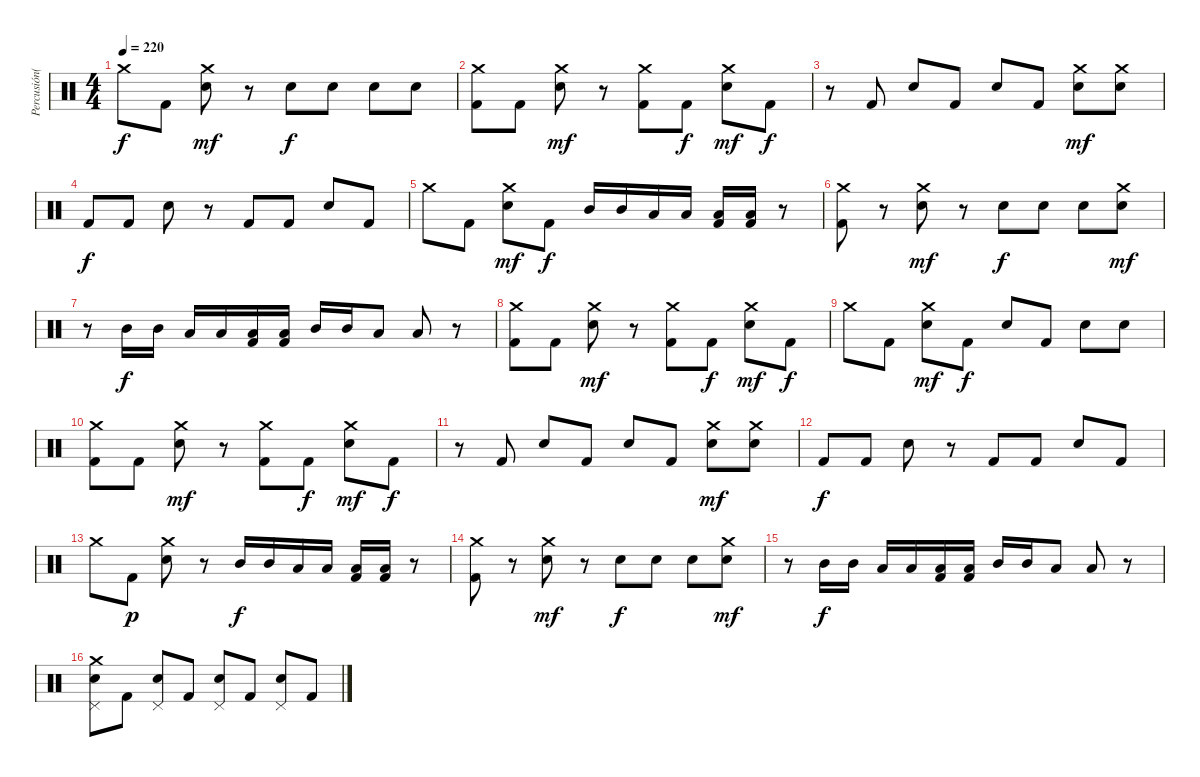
\track ("Percusión(Brett Powell)" "Percusión(") {instrument percussion}
\staff {score}
\articulation defaults
\ts (4 4)
\tempo 220
\clef neutral
\ks c "Crash medium (hit)".8{dy f} "Kick (hit) 2".8
("Crash medium (hit)" "Electric Snare (hit)").8{dy mf} r.8 "Electric Snare (hit)".8{dy f} "Electric Snare (hit)".8 "Electric Snare (hit)".8 "Electric Snare (hit)".8 |
("Crash medium (hit)" "Kick (hit) 2").8 "Kick (hit) 2".8 ("Crash medium (hit)" "Electric Snare (hit)").8{dy mf} r.8 ("Crash medium (hit)" "Kick (hit) 2").8 "Kick (hit) 2".8{dy f} ("Crash medium (hit)" "Electric Snare (hit)").8{dy mf} "Kick (hit) 2".8{dy f} |
r.8 "Kick (hit) 2".8 "Electric Snare (hit)".8 "Kick (hit) 2".8 "Electric Snare (hit)".8 "Kick (hit) 2".8 ("Crash medium (hit)" "Electric Snare (hit)").8{dy mf} ("Crash medium (hit)" "Electric Snare (hit)").8 |
"Kick (hit) 2".8{dy f} "Kick (hit) 2".8 "Electric Snare (hit)".8 r.8 "Kick (hit) 2".8 "Kick (hit) 2".8 "Electric Snare (hit)".8 "Kick (hit) 2".8 |
"Crash medium (hit)".8 "Kick (hit) 2".8 ("Crash medium (hit)" "Electric Snare (hit)").8{dy mf} "Kick (hit) 2".8{dy f} "Mid Tom (hit)".16 "Mid Tom (hit)".16 "Low Tom (hit)".16 "Low Tom (hit)".16 ("Low Tom (hit)" "Kick (hit) 2").16 ("Low Tom (hit)" "Kick (hit) 2").16 r.8 |
("Crash medium (hit)" "Kick (hit) 2").8 r.8 ("Crash medium (hit)" "Electric Snare (hit)").8{dy mf} r.8 "Electric Snare (hit)".8{dy f} "Electric Snare (hit)".8 "Electric Snare (hit)".8 ("Crash medium (hit)" "Electric Snare (hit)").8{dy mf} |
r.8 "Mid Tom (hit)".16{dy f} "Mid Tom (hit)".16 "Low Tom (hit)".16 "Low Tom (hit)".16 ("Low Tom (hit)" "Kick (hit) 2").16 ("Low Tom (hit)" "Kick (hit) 2").16 "Mid Tom (hit)".16 "Mid Tom (hit)".16 "Low Tom (hit)".8 "Low Tom (hit)".8 r.8 |
("Crash medium (hit)" "Kick (hit) 2").8 "Kick (hit) 2".8 ("Crash medium (hit)" "Electric Snare (hit)").8{dy mf} r.8 ("Crash medium (hit)" "Kick (hit) 2").8 "Kick (hit) 2".8{dy f} ("Crash medium (hit)" "Electric Snare (hit)").8{dy mf} "Kick (hit) 2".8{dy f} |
"Crash medium (hit)".8 "Kick (hit) 2".8 ("Crash medium (hit)" "Electric Snare (hit)").8{dy mf} "Kick (hit) 2".8{dy f} "Electric Snare (hit)".8 "Kick (hit) 2".8 "Electric Snare (hit)".8 "Electric Snare (hit)".8 |
("Crash medium (hit)" "Kick (hit) 2").8 "Kick (hit) 2".8 ("Crash medium (hit)" "Electric Snare (hit)").8{dy mf} r.8 ("Crash medium (hit)" "Kick (hit) 2").8 "Kick (hit) 2".8{dy f} ("Crash medium (hit)" "Electric Snare (hit)").8{dy mf} "Kick (hit) 2".8{dy f} |
r.8 "Kick (hit) 2".8 "Electric Snare (hit)".8 "Kick (hit) 2".8 "Electric Snare (hit)".8 "Kick (hit) 2".8 ("Crash medium (hit)" "Electric Snare (hit)").8{dy mf} ("Crash medium (hit)" "Electric Snare (hit)").8 |
"Kick (hit) 2".8{dy f} "Kick (hit) 2".8 "Electric Snare (hit)".8 r.8 "Kick (hit) 2".8 "Kick (hit) 2".8 "Electric Snare (hit)".8 "Kick (hit) 2".8 |
"Crash medium (hit)".8 "Kick (hit) 2".8{dy p} ("Crash medium (hit)" "Electric Snare (hit)").8 r.8 "Mid Tom (hit)".16{dy f} "Mid Tom (hit)".16 "Low Tom (hit)".16 "Low Tom (hit)".16 ("Low Tom (hit)" "Kick (hit) 2").16 ("Low Tom (hit)" "Kick (hit) 2").16 r.8 |
("Crash medium (hit)" "Kick (hit) 2").8 r.8 ("Crash medium (hit)" "Electric Snare (hit)").8{dy mf} r.8 "Electric Snare (hit)".8{dy f} "Electric Snare (hit)".8 "Electric Snare (hit)".8 ("Crash medium (hit)" "Electric Snare (hit)").8{dy mf} |
r.8 "Mid Tom (hit)".16{dy f} "Mid Tom (hit)".16 "Low Tom (hit)".16 "Low Tom (hit)".16 ("Low Tom (hit)" "Kick (hit) 2").16 ("Low Tom (hit)" "Kick (hit) 2").16 "Mid Tom (hit)".16 "Mid Tom (hit)".16 "Low Tom (hit)".8 "Low Tom (hit)".8 r.8 |
("Pedal Hi-Hat (hit)" "Crash medium (hit)" "Electric Snare (hit)").8 "Kick (hit) 2".8 ("Pedal Hi-Hat (hit)" "Electric Snare (hit)").8 "Kick (hit) 2".8 ("Pedal Hi-Hat (hit)" "Electric Snare (hit)").8 "Kick (hit) 2".8 ("Pedal Hi-Hat (hit)" "Electric Snare (hit)").8 "Kick (hit) 2".8
